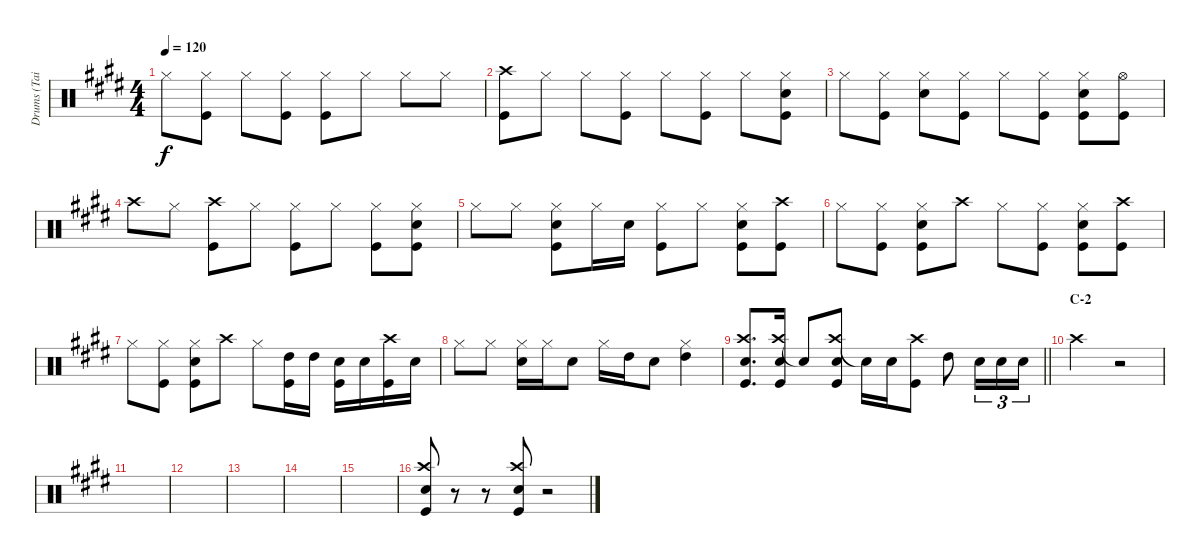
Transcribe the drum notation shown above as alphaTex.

\track ("Drums (Tainaka Ritsu)" "Drums (Tai") {instrument percussion}
\staff {score}
\articulation defaults
\ts (4 4)
\tempo 120
\clef neutral
\ks e "Hi-Hat (closed)".8{dy f}
("Hi-Hat (closed)" "Kick (hit)").8 "Hi-Hat (closed)".8 ("Hi-Hat (closed)" "Kick (hit)").8 ("Hi-Hat (closed)" "Kick (hit)").8 "Hi-Hat (closed)".8 "Hi-Hat (closed)".8 "Hi-Hat (closed)".8 |
("Crash high (hit)" "Kick (hit)").8 "Hi-Hat (closed)".8 "Hi-Hat (closed)".8 ("Hi-Hat (closed)" "Kick (hit)").8 "Hi-Hat (closed)".8 ("Hi-Hat (closed)" "Kick (hit)").8 "Hi-Hat (closed)".8 ("Hi-Hat (closed)" "Snare (hit) 2" "Kick (hit)").8 |
"Hi-Hat (closed)".8 ("Hi-Hat (closed)" "Kick (hit)").8 ("Hi-Hat (closed)" "Snare (hit) 2").8 ("Hi-Hat (closed)" "Kick (hit)").8 "Hi-Hat (closed)".8 ("Hi-Hat (closed)" "Kick (hit)").8 ("Hi-Hat (closed)" "Snare (hit) 2" "Kick (hit)").8 ("Hi-Hat (open)" "Kick (hit)").8 |
"Crash high (hit)".8 "Hi-Hat (closed)".8 ("Crash high (hit)" "Kick (hit)").8 "Hi-Hat (closed)".8 ("Hi-Hat (closed)" "Kick (hit)").8 "Hi-Hat (closed)".8 ("Hi-Hat (closed)" "Kick (hit)").8 ("Hi-Hat (closed)" "Snare (hit) 2" "Kick (hit)").8 |
"Hi-Hat (closed)".8 "Hi-Hat (closed)".8 ("Hi-Hat (closed)" "Snare (hit) 2" "Kick (hit)").8 "Hi-Hat (closed)".16 "Snare (hit) 2".16 ("Hi-Hat (closed)" "Kick (hit)").8 "Hi-Hat (closed)".8 ("Hi-Hat (closed)" "Snare (hit) 2" "Kick (hit)").8 ("Crash high (hit)" "Kick (hit)").8 |
"Hi-Hat (closed)".8 ("Hi-Hat (closed)" "Kick (hit)").8 ("Hi-Hat (closed)" "Snare (hit) 2" "Kick (hit)").8 "Crash high (hit)".8 "Hi-Hat (closed)".8 ("Hi-Hat (closed)" "Kick (hit)").8 ("Hi-Hat (closed)" "Snare (hit) 2" "Kick (hit)").8 ("Crash high (hit)" "Kick (hit)").8 |
"Hi-Hat (closed)".8 ("Hi-Hat (closed)" "Kick (hit)").8 ("Hi-Hat (closed)" "Snare (hit) 2" "Kick (hit)").8 "Crash high (hit)".8 "Hi-Hat (closed)".8 ("High Tom (hit)" "Kick (hit)").16 "High Tom (hit)".16 ("Snare (hit) 2" "Kick (hit)").16 "Snare (hit) 2".16 ("Crash high (hit)" "Kick (hit)").16 "Snare (hit) 2".16 |
"Hi-Hat (closed)".8 "Hi-Hat (closed)".8 ("Hi-Hat (closed)" "Snare (hit) 2").16 "Hi-Hat (closed)".16 "Snare (hit) 2".8 "Hi-Hat (closed)".16 "High Tom (hit)".16 "Snare (hit) 2".8 ("Hi-Hat (closed)" "High Tom (hit)").4 |
\barLineRight lightlight
("Crash high (hit)" "Snare (hit) 2" "Kick (hit)").8{d} ("Crash high (hit)" "Snare (hit) 2" "Kick (hit)").16 "Snare (hit)"{t}.8 ("Crash high (hit)" "Snare (hit) 2" "Kick (hit)").8 "Snare (hit)"{t}.16 "Snare (hit) 2".16 ("Crash high (hit)" "Kick (hit)").8 "High Tom (hit)".8 "Snare (hit) 2".16{tu (3 2)} "Snare (hit) 2".16{tu (3 2)} "Snare (hit) 2".16{tu (3 2)} |
\section ("" "C-2")
"Crash high (hit)".2 r.2 |
|
|
|
|
|
("Crash high (hit)" "Snare (hit) 2" "Kick (hit)").8 r.8 r.8 ("Crash high (hit)" "Snare (hit) 2" "Kick (hit)").8 r.2
